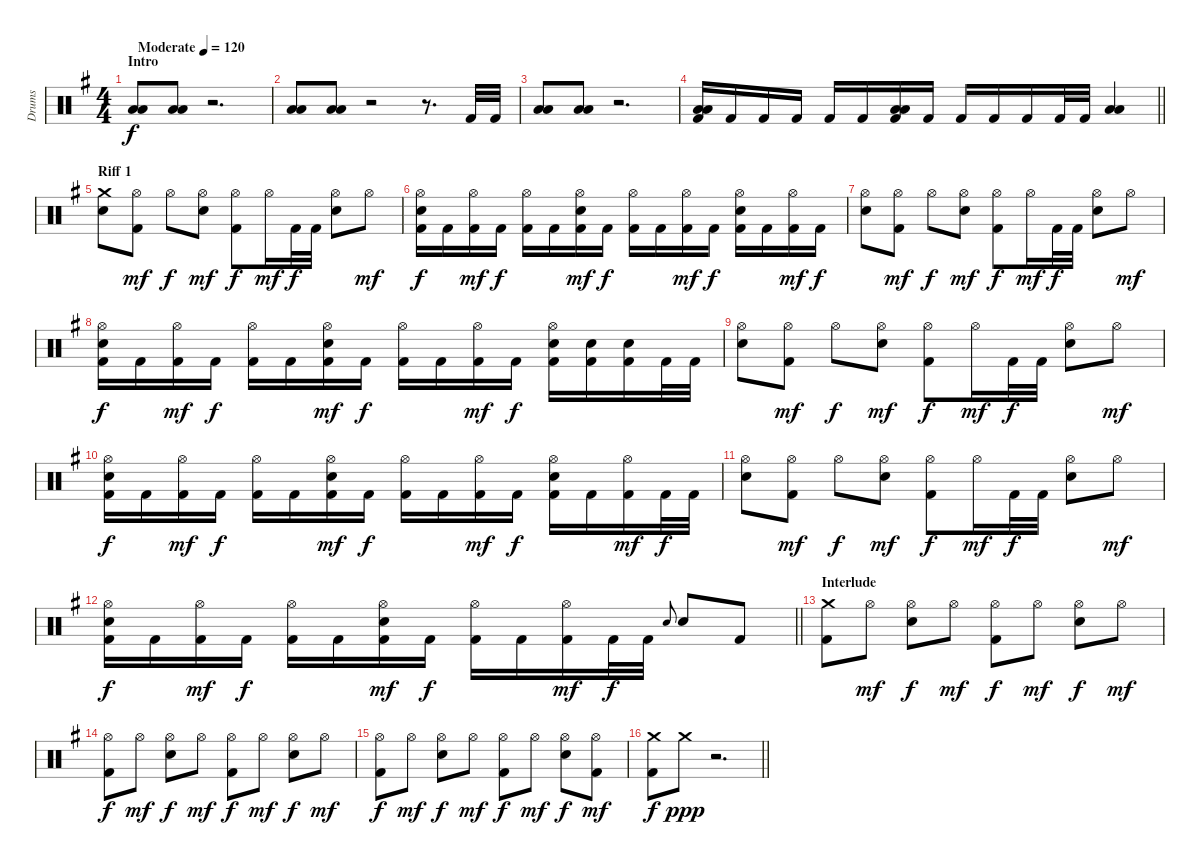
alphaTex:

\track ("Drums" "Drums") {instrument percussion}
\staff {score}
\articulation defaults
\ts (4 4)
\section ("" "Intro")
\tempo (120 "Moderate")
\clef neutral
\ks eminor
("Low Tom (hit)" "Low Floor Tom (hit)").8{dy f} ("Low Tom (hit)" "Low Floor Tom (hit)").8 r.2{d} |
("Low Tom (hit)" "Low Floor Tom (hit)").8 ("Low Tom (hit)" "Low Floor Tom (hit)").8 r.2 r.8{d} "Kick (hit) 2".32 "Kick (hit) 2".32 |
("Low Tom (hit)" "Low Floor Tom (hit)").8 ("Low Tom (hit)" "Low Floor Tom (hit)").8 r.2{d} |
\barLineRight lightlight
("Kick (hit) 2" "Low Tom (hit)" "Low Floor Tom (hit)").16 "Kick (hit) 2".16 "Kick (hit) 2".16 "Kick (hit) 2".16 "Kick (hit) 2".16 "Kick (hit) 2".16 ("Kick (hit) 2" "Low Tom (hit)" "Low Floor Tom (hit)").16 "Kick (hit) 2".16 "Kick (hit) 2".16 "Kick (hit) 2".16 "Kick (hit) 2".16 "Kick (hit) 2".32 "Kick (hit) 2".32 ("Low Tom (hit)" "Low Floor Tom (hit)").4 |
\section ("" "Riff 1")
("Crash medium (hit)" "Electric Snare (hit)").8 ("Hi-Hat (open)" "Kick (hit) 2").8{dy mf} "Hi-Hat (open)".8{dy f} ("Hi-Hat (open)" "Electric Snare (hit)").8{dy mf} ("Hi-Hat (open)" "Kick (hit) 2").8{dy f} "Hi-Hat (open)".16{dy mf} "Kick (hit) 2".32{dy f} "Kick (hit) 2".32 ("Electric Snare (hit)" "Hi-Hat (open)").8 "Hi-Hat (open)".8{dy mf} |
("Hi-Hat (open)" "Kick (hit) 2" "Electric Snare (hit)").16{dy f} "Kick (hit) 2".16 ("Hi-Hat (open)" "Kick (hit) 2").16{dy mf} "Kick (hit) 2".16{dy f} ("Hi-Hat (open)" "Kick (hit) 2").16 "Kick (hit) 2".16 ("Hi-Hat (open)" "Kick (hit) 2" "Electric Snare (hit)").16{dy mf} "Kick (hit) 2".16{dy f} ("Hi-Hat (open)" "Kick (hit) 2").16 "Kick (hit) 2".16 ("Hi-Hat (open)" "Kick (hit) 2").16{dy mf} "Kick (hit) 2".16{dy f} ("Hi-Hat (open)" "Kick (hit) 2" "Electric Snare (hit)").16 "Kick (hit) 2".16 ("Hi-Hat (open)" "Kick (hit) 2").16{dy mf} "Kick (hit) 2".16{dy f} |
("Hi-Hat (open)" "Electric Snare (hit)").8 ("Hi-Hat (open)" "Kick (hit) 2").8{dy mf} "Hi-Hat (open)".8{dy f} ("Hi-Hat (open)" "Electric Snare (hit)").8{dy mf} ("Hi-Hat (open)" "Kick (hit) 2").8{dy f} "Hi-Hat (open)".16{dy mf} "Kick (hit) 2".32{dy f} "Kick (hit) 2".32 ("Electric Snare (hit)" "Hi-Hat (open)").8 "Hi-Hat (open)".8{dy mf} |
("Hi-Hat (open)" "Kick (hit) 2" "Electric Snare (hit)").16{dy f} "Kick (hit) 2".16 ("Hi-Hat (open)" "Kick (hit) 2").16{dy mf} "Kick (hit) 2".16{dy f} ("Hi-Hat (open)" "Kick (hit) 2").16 "Kick (hit) 2".16 ("Hi-Hat (open)" "Kick (hit) 2" "Electric Snare (hit)").16{dy mf} "Kick (hit) 2".16{dy f} ("Hi-Hat (open)" "Kick (hit) 2").16 "Kick (hit) 2".16 ("Hi-Hat (open)" "Kick (hit) 2").16{dy mf} "Kick (hit) 2".16{dy f} ("Hi-Hat (open)" "Kick (hit) 2" "Electric Snare (hit)").16 ("Electric Snare (hit)" "Kick (hit) 2").16 ("Electric Snare (hit)" "Kick (hit) 2").16 "Kick (hit) 2".32 "Kick (hit) 2".32 |
("Hi-Hat (open)" "Electric Snare (hit)").8 ("Hi-Hat (open)" "Kick (hit) 2").8{dy mf} "Hi-Hat (open)".8{dy f} ("Hi-Hat (open)" "Electric Snare (hit)").8{dy mf} ("Hi-Hat (open)" "Kick (hit) 2").8{dy f} "Hi-Hat (open)".16{dy mf} "Kick (hit) 2".32{dy f} "Kick (hit) 2".32 ("Electric Snare (hit)" "Hi-Hat (open)").8 "Hi-Hat (open)".8{dy mf} |
("Hi-Hat (open)" "Kick (hit) 2" "Electric Snare (hit)").16{dy f} "Kick (hit) 2".16 ("Hi-Hat (open)" "Kick (hit) 2").16{dy mf} "Kick (hit) 2".16{dy f} ("Hi-Hat (open)" "Kick (hit) 2").16 "Kick (hit) 2".16 ("Hi-Hat (open)" "Kick (hit) 2" "Electric Snare (hit)").16{dy mf} "Kick (hit) 2".16{dy f} ("Hi-Hat (open)" "Kick (hit) 2").16 "Kick (hit) 2".16 ("Hi-Hat (open)" "Kick (hit) 2").16{dy mf} "Kick (hit) 2".16{dy f} ("Hi-Hat (open)" "Kick (hit) 2" "Electric Snare (hit)").16 "Kick (hit) 2".16 ("Hi-Hat (open)" "Kick (hit) 2").16{dy mf} "Kick (hit) 2".32{dy f} "Kick (hit) 2".32 |
("Hi-Hat (open)" "Electric Snare (hit)").8 ("Hi-Hat (open)" "Kick (hit) 2").8{dy mf} "Hi-Hat (open)".8{dy f} ("Hi-Hat (open)" "Electric Snare (hit)").8{dy mf} ("Hi-Hat (open)" "Kick (hit) 2").8{dy f} "Hi-Hat (open)".16{dy mf} "Kick (hit) 2".32{dy f} "Kick (hit) 2".32 ("Electric Snare (hit)" "Hi-Hat (open)").8 "Hi-Hat (open)".8{dy mf} |
\barLineRight lightlight
("Hi-Hat (open)" "Kick (hit) 2" "Electric Snare (hit)").16{dy f} "Kick (hit) 2".16 ("Hi-Hat (open)" "Kick (hit) 2").16{dy mf} "Kick (hit) 2".16{dy f} ("Hi-Hat (open)" "Kick (hit) 2").16 "Kick (hit) 2".16 ("Hi-Hat (open)" "Kick (hit) 2" "Electric Snare (hit)").16{dy mf} "Kick (hit) 2".16{dy f} ("Hi-Hat (open)" "Kick (hit) 2").16 "Kick (hit) 2".16 ("Hi-Hat (open)" "Kick (hit) 2").16{dy mf} "Kick (hit) 2".32{dy f} "Kick (hit) 2".32 "Electric Snare (hit)".8{gr onbeat} "Electric Snare (hit)".8 "Kick (hit) 2".8 |
\section ("" "Interlude")
("Crash medium (hit)" "Kick (hit) 2").8 "Hi-Hat (open)".8{dy mf} ("Electric Snare (hit)" "Hi-Hat (open)").8{dy f} "Hi-Hat (open)".8{dy mf} ("Kick (hit) 2" "Hi-Hat (open)").8{dy f} "Hi-Hat (open)".8{dy mf} ("Electric Snare (hit)" "Hi-Hat (open)").8{dy f} "Hi-Hat (open)".8{dy mf} |
("Kick (hit) 2" "Hi-Hat (open)").8{dy f} "Hi-Hat (open)".8{dy mf} ("Electric Snare (hit)" "Hi-Hat (open)").8{dy f} "Hi-Hat (open)".8{dy mf} ("Kick (hit) 2" "Hi-Hat (open)").8{dy f} "Hi-Hat (open)".8{dy mf} ("Electric Snare (hit)" "Hi-Hat (open)").8{dy f} "Hi-Hat (open)".8{dy mf} |
("Kick (hit) 2" "Hi-Hat (open)").8{dy f} "Hi-Hat (open)".8{dy mf} ("Electric Snare (hit)" "Hi-Hat (open)").8{dy f} "Hi-Hat (open)".8{dy mf} ("Kick (hit) 2" "Hi-Hat (open)").8{dy f} "Hi-Hat (open)".8{dy mf} ("Electric Snare (hit)" "Hi-Hat (open)").8{dy f} ("Kick (hit) 2" "Hi-Hat (open)").8{dy mf} |
\barLineRight lightlight
("Kick (hit) 2" "Crash medium (hit)").8{dy f} "Crash medium (hit)".8{dy ppp} r.2{d}
